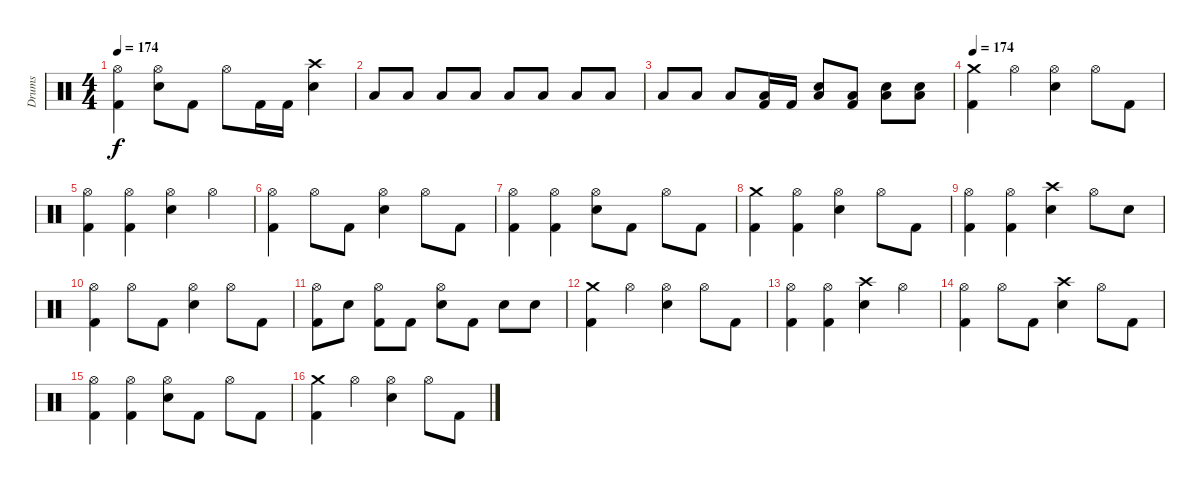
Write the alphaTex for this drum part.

\track ("Drums" "Drums") {instrument percussion}
\staff {score}
\articulation defaults
\ts (4 4)
\tempo 174
\clef neutral
\ks c
("Hi-Hat (open)" "Kick (hit) 2").4{dy f} ("Hi-Hat (open)" "Snare (hit) 2").8 "Kick (hit) 2".8 "Hi-Hat (open)".8 "Kick (hit) 2".16 "Kick (hit) 2".16 ("Crash high (hit)" "Snare (hit) 2").4 |
"Low Floor Tom (hit)".8 "Low Floor Tom (hit)".8 "Low Floor Tom (hit)".8 "Low Floor Tom (hit)".8 "Low Floor Tom (hit)".8 "Low Floor Tom (hit)".8 "Low Floor Tom (hit)".8 "Low Floor Tom (hit)".8 |
"Low Floor Tom (hit)".8 "Low Floor Tom (hit)".8 "Low Floor Tom (hit)".8 ("Low Floor Tom (hit)" "Kick (hit) 2").16 "Kick (hit) 2".16 ("Low Floor Tom (hit)" "Snare (hit) 2").8 ("Low Floor Tom (hit)" "Kick (hit) 2").8 ("Low Floor Tom (hit)" "Snare (hit) 2").8 ("Low Floor Tom (hit)" "Snare (hit) 2").8 |
\tempo 174
("Crash medium (hit)" "Kick (hit) 2").4 "Hi-Hat (open)".4 ("Hi-Hat (open)" "Snare (hit) 2").4 "Hi-Hat (open)".8 "Kick (hit) 2".8 |
("Hi-Hat (open)" "Kick (hit) 2").4 ("Hi-Hat (open)" "Kick (hit) 2").4 ("Hi-Hat (open)" "Snare (hit) 2").4 "Hi-Hat (open)".4 |
("Hi-Hat (open)" "Kick (hit) 2").4 "Hi-Hat (open)".8 "Kick (hit) 2".8 ("Hi-Hat (open)" "Snare (hit) 2").4 "Hi-Hat (open)".8 "Kick (hit) 2".8 |
("Hi-Hat (open)" "Kick (hit) 2").4 ("Hi-Hat (open)" "Kick (hit) 2").4 ("Hi-Hat (open)" "Snare (hit) 2").8 "Kick (hit) 2".8 "Hi-Hat (open)".8 "Kick (hit) 2".8 |
("Crash medium (hit)" "Kick (hit) 2").4 ("Hi-Hat (open)" "Kick (hit) 2").4 ("Hi-Hat (open)" "Snare (hit) 2").4 "Hi-Hat (open)".8 "Kick (hit) 2".8 |
("Hi-Hat (open)" "Kick (hit) 2").4 ("Hi-Hat (open)" "Kick (hit) 2").4 ("Crash high (hit)" "Snare (hit) 2").4 "Hi-Hat (open)".8 "Snare (hit) 2".8 |
("Hi-Hat (open)" "Kick (hit) 2").4 "Hi-Hat (open)".8 "Kick (hit) 2".8 ("Hi-Hat (open)" "Snare (hit) 2").4 "Hi-Hat (open)".8 "Kick (hit) 2".8 |
("Hi-Hat (open)" "Kick (hit) 2").8 "Snare (hit) 2".8 ("Hi-Hat (open)" "Kick (hit) 2").8 "Kick (hit) 2".8 ("Hi-Hat (open)" "Snare (hit) 2").8 "Kick (hit) 2".8 "Snare (hit) 2".8 "Snare (hit) 2".8 |
("Crash medium (hit)" "Kick (hit) 2").4 "Hi-Hat (open)".4 ("Hi-Hat (open)" "Snare (hit) 2").4 "Hi-Hat (open)".8 "Kick (hit) 2".8 |
("Hi-Hat (open)" "Kick (hit) 2").4 ("Hi-Hat (open)" "Kick (hit) 2").4 ("Crash high (hit)" "Snare (hit) 2").4 "Hi-Hat (open)".4 |
("Hi-Hat (open)" "Kick (hit) 2").4 "Hi-Hat (open)".8 "Kick (hit) 2".8 ("Crash high (hit)" "Snare (hit) 2").4 "Hi-Hat (open)".8 "Kick (hit) 2".8 |
("Hi-Hat (open)" "Kick (hit) 2").4 ("Hi-Hat (open)" "Kick (hit) 2").4 ("Hi-Hat (open)" "Snare (hit) 2").8 "Kick (hit) 2".8 "Hi-Hat (open)".8 "Kick (hit) 2".8 |
("Crash medium (hit)" "Kick (hit) 2").4 "Hi-Hat (open)".4 ("Hi-Hat (open)" "Snare (hit) 2").4 "Hi-Hat (open)".8 "Kick (hit) 2".8
